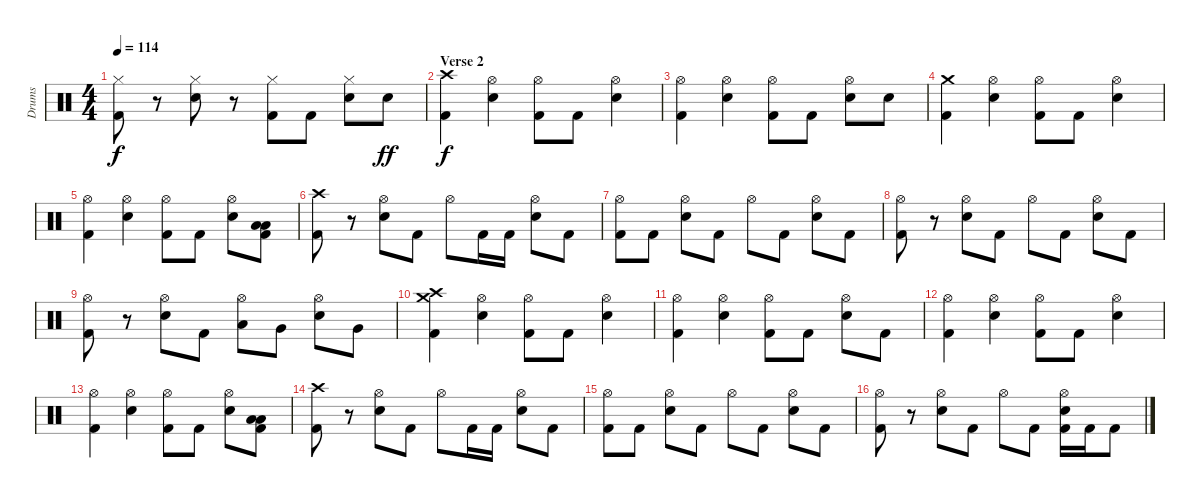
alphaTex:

\track ("Drums" "Drums") {instrument percussion}
\staff {score}
\articulation defaults
\ts (4 4)
\tempo 114
\clef neutral
\ks c
("Kick (hit) 2" "Hi-Hat (closed)").8{dy f} r.8 ("Electric Snare (hit)" "Hi-Hat (closed)").8 r.8 ("Kick (hit) 2" "Hi-Hat (closed)").8 "Kick (hit) 2".8 ("Electric Snare (hit)" "Hi-Hat (closed)").8 "Electric Snare (hit)".8{dy ff} |
\section ("" "Verse 2")
("Kick (hit) 2" "Crash high (hit)").4{dy f} ("Electric Snare (hit)" "Hi-Hat (open)").4 ("Kick (hit) 2" "Hi-Hat (open)").8 "Kick (hit) 2".8 ("Electric Snare (hit)" "Hi-Hat (open)").4 |
("Kick (hit) 2" "Hi-Hat (open)").4 ("Electric Snare (hit)" "Hi-Hat (open)").4 ("Kick (hit) 2" "Hi-Hat (open)").8 "Kick (hit) 2".8 ("Electric Snare (hit)" "Hi-Hat (open)").8 "Electric Snare (hit)".8 |
("Kick (hit) 2" "Crash medium (hit)").4 ("Electric Snare (hit)" "Hi-Hat (open)").4 ("Kick (hit) 2" "Hi-Hat (open)").8 "Kick (hit) 2".8 ("Electric Snare (hit)" "Hi-Hat (open)").4 |
("Kick (hit) 2" "Hi-Hat (open)").4 ("Electric Snare (hit)" "Hi-Hat (open)").4 ("Kick (hit) 2" "Hi-Hat (open)").8 "Kick (hit) 2".8 ("Electric Snare (hit)" "Hi-Hat (open)").8 ("Kick (hit) 2" "Low Tom (hit)" "Low Floor Tom (hit)").8 |
("Kick (hit) 2" "Crash high (hit)").8 r.8 ("Electric Snare (hit)" "Hi-Hat (open)").8 "Kick (hit) 2".8 "Hi-Hat (open)".8 "Kick (hit) 2".16 "Kick (hit) 2".16 ("Electric Snare (hit)" "Hi-Hat (open)").8 "Kick (hit) 2".8 |
("Kick (hit) 2" "Hi-Hat (open)").8 "Kick (hit) 2".8 ("Electric Snare (hit)" "Hi-Hat (open)").8 "Kick (hit) 2".8 "Hi-Hat (open)".8 "Kick (hit) 2".8 ("Electric Snare (hit)" "Hi-Hat (open)").8 "Kick (hit) 2".8 |
("Kick (hit) 2" "Hi-Hat (open)").8 r.8 ("Electric Snare (hit)" "Hi-Hat (open)").8 "Kick (hit) 2".8 "Hi-Hat (open)".8 "Kick (hit) 2".8 ("Electric Snare (hit)" "Hi-Hat (open)").8 "Kick (hit) 2".8 |
("Kick (hit) 2" "Hi-Hat (open)").8 r.8 ("Electric Snare (hit)" "Hi-Hat (open)").8 "Kick (hit) 2".8 ("Low Tom (hit)" "Hi-Hat (open)").8 "Very Low Tom (hit)".8 ("Electric Snare (hit)" "Hi-Hat (open)").8 "Very Low Tom (hit)".8 |
("Kick (hit) 2" "Crash medium (hit)" "Crash high (hit)").4 ("Electric Snare (hit)" "Hi-Hat (open)").4 ("Kick (hit) 2" "Hi-Hat (open)").8 "Kick (hit) 2".8 ("Electric Snare (hit)" "Hi-Hat (open)").4 |
("Kick (hit) 2" "Hi-Hat (open)").4 ("Electric Snare (hit)" "Hi-Hat (open)").4 ("Kick (hit) 2" "Hi-Hat (open)").8 "Kick (hit) 2".8 ("Electric Snare (hit)" "Hi-Hat (open)").8 "Kick (hit) 2".8 |
("Kick (hit) 2" "Hi-Hat (open)").4 ("Electric Snare (hit)" "Hi-Hat (open)").4 ("Kick (hit) 2" "Hi-Hat (open)").8 "Kick (hit) 2".8 ("Electric Snare (hit)" "Hi-Hat (open)").4 |
("Kick (hit) 2" "Hi-Hat (open)").4 ("Electric Snare (hit)" "Hi-Hat (open)").4 ("Kick (hit) 2" "Hi-Hat (open)").8 "Kick (hit) 2".8 ("Electric Snare (hit)" "Hi-Hat (open)").8 ("Kick (hit) 2" "Low Tom (hit)" "Low Floor Tom (hit)").8 |
("Kick (hit) 2" "Crash high (hit)").8 r.8 ("Electric Snare (hit)" "Hi-Hat (open)").8 "Kick (hit) 2".8 "Hi-Hat (open)".8 "Kick (hit) 2".16 "Kick (hit) 2".16 ("Electric Snare (hit)" "Hi-Hat (open)").8 "Kick (hit) 2".8 |
("Kick (hit) 2" "Hi-Hat (open)").8 "Kick (hit) 2".8 ("Electric Snare (hit)" "Hi-Hat (open)").8 "Kick (hit) 2".8 "Hi-Hat (open)".8 "Kick (hit) 2".8 ("Electric Snare (hit)" "Hi-Hat (open)").8 "Kick (hit) 2".8 |
("Kick (hit) 2" "Hi-Hat (open)").8 r.8 ("Electric Snare (hit)" "Hi-Hat (open)").8 "Kick (hit) 2".8 "Hi-Hat (open)".8 "Kick (hit) 2".8 ("Kick (hit) 2" "Electric Snare (hit)" "Hi-Hat (open)").16 "Kick (hit) 2".16 "Kick (hit) 2".8
